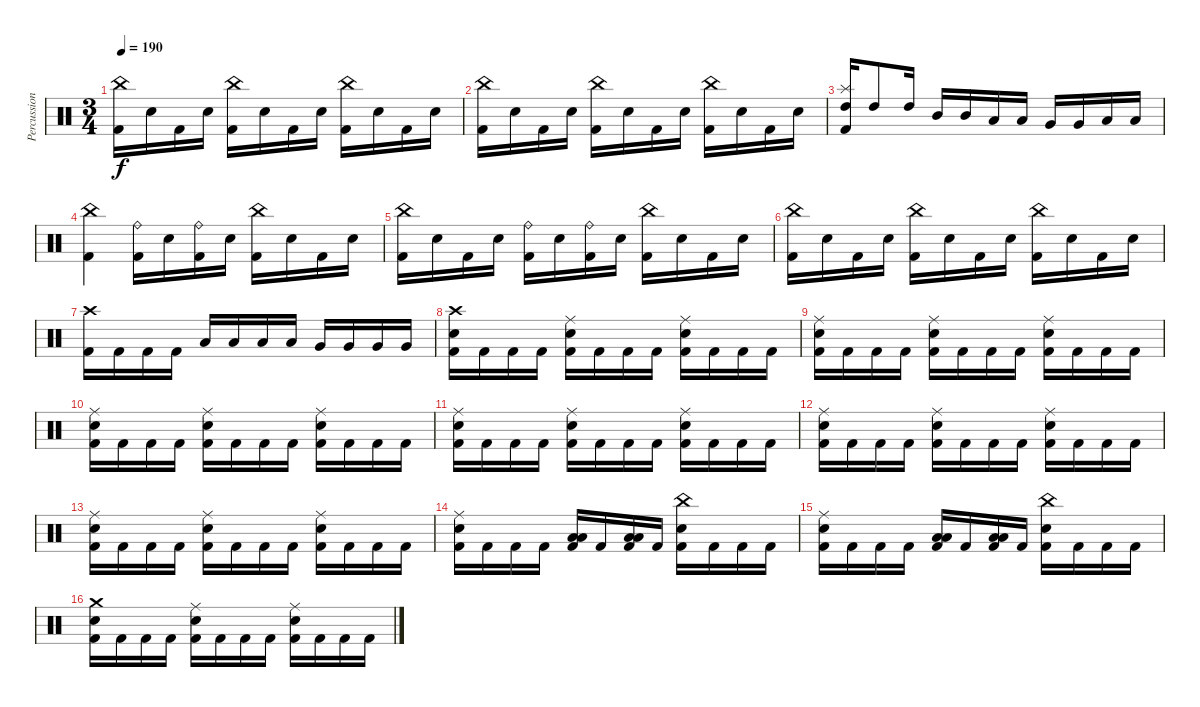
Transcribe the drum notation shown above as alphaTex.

\track ("Percussion" "Percussion") {instrument percussion}
\staff {score}
\articulation defaults
\ts (3 4)
\tempo 190
\clef neutral
\ks c
("China (hit)" "Kick (hit) 2").16{dy f} "Electric Snare (hit)".16 "Kick (hit) 2".16 "Electric Snare (hit)".16 ("China (hit)" "Kick (hit) 2").16 "Electric Snare (hit)".16 "Kick (hit) 2".16 "Electric Snare (hit)".16 ("China (hit)" "Kick (hit) 2").16 "Electric Snare (hit)".16 "Kick (hit) 2".16 "Electric Snare (hit)".16 |
("China (hit)" "Kick (hit) 2").16 "Electric Snare (hit)".16 "Kick (hit) 2".16 "Electric Snare (hit)".16 ("China (hit)" "Kick (hit) 2").16 "Electric Snare (hit)".16 "Kick (hit) 2".16 "Electric Snare (hit)".16 ("China (hit)" "Kick (hit) 2").16 "Electric Snare (hit)".16 "Kick (hit) 2".16 "Electric Snare (hit)".16 |
("Splash (hit)" "High Tom (hit)" "Kick (hit) 2").16 "High Tom (hit)".8 "High Tom (hit)".16 "Mid Tom (hit)".16 "Mid Tom (hit)".16 "Low Tom (hit)".16 "Low Tom (hit)".16 "Very Low Tom (hit)".16 "Very Low Tom (hit)".16 "Low Floor Tom (hit)".16 "Low Floor Tom (hit)".16 |
("China (hit)" "Kick (hit) 2").4 ("Ride (bell)" "Kick (hit) 2").16 "Electric Snare (hit)".16 ("Ride (bell)" "Kick (hit) 2").16 "Electric Snare (hit)".16 ("China (hit)" "Kick (hit) 2").16 "Electric Snare (hit)".16 "Kick (hit) 2".16 "Electric Snare (hit)".16 |
("China (hit)" "Kick (hit) 2").16 "Electric Snare (hit)".16 "Kick (hit) 2".16 "Electric Snare (hit)".16 ("Ride (bell)" "Kick (hit) 2").16 "Electric Snare (hit)".16 ("Ride (bell)" "Kick (hit) 2").16 "Electric Snare (hit)".16 ("China (hit)" "Kick (hit) 2").16 "Electric Snare (hit)".16 "Kick (hit) 2".16 "Electric Snare (hit)".16 |
("China (hit)" "Kick (hit) 2").16 "Electric Snare (hit)".16 "Kick (hit) 2".16 "Electric Snare (hit)".16 ("China (hit)" "Kick (hit) 2").16 "Electric Snare (hit)".16 "Kick (hit) 2".16 "Electric Snare (hit)".16 ("China (hit)" "Kick (hit) 2").16 "Electric Snare (hit)".16 "Kick (hit) 2".16 "Electric Snare (hit)".16 |
("Crash high (hit)" "Kick (hit) 2").16 "Kick (hit) 2".16 "Kick (hit) 2".16 "Kick (hit) 2".16 "Low Tom (hit)".16 "Low Tom (hit)".16 "Low Tom (hit)".16 "Low Tom (hit)".16 "Very Low Tom (hit)".16 "Very Low Tom (hit)".16 "Very Low Tom (hit)".16 "Very Low Tom (hit)".16 |
("Crash high (hit)" "Electric Snare (hit)" "Kick (hit) 2").16 "Kick (hit) 2".16 "Kick (hit) 2".16 "Kick (hit) 2".16 ("Ride (middle)" "Electric Snare (hit)" "Kick (hit) 2").16 "Kick (hit) 2".16 "Kick (hit) 2".16 "Kick (hit) 2".16 ("Ride (middle)" "Electric Snare (hit)" "Kick (hit) 2").16 "Kick (hit) 2".16 "Kick (hit) 2".16 "Kick (hit) 2".16 |
("Ride (middle)" "Electric Snare (hit)" "Kick (hit) 2").16 "Kick (hit) 2".16 "Kick (hit) 2".16 "Kick (hit) 2".16 ("Ride (middle)" "Electric Snare (hit)" "Kick (hit) 2").16 "Kick (hit) 2".16 "Kick (hit) 2".16 "Kick (hit) 2".16 ("Ride (middle)" "Electric Snare (hit)" "Kick (hit) 2").16 "Kick (hit) 2".16 "Kick (hit) 2".16 "Kick (hit) 2".16 |
("Ride (middle)" "Electric Snare (hit)" "Kick (hit) 2").16 "Kick (hit) 2".16 "Kick (hit) 2".16 "Kick (hit) 2".16 ("Ride (middle)" "Electric Snare (hit)" "Kick (hit) 2").16 "Kick (hit) 2".16 "Kick (hit) 2".16 "Kick (hit) 2".16 ("Ride (middle)" "Electric Snare (hit)" "Kick (hit) 2").16 "Kick (hit) 2".16 "Kick (hit) 2".16 "Kick (hit) 2".16 |
("Ride (middle)" "Electric Snare (hit)" "Kick (hit) 2").16 "Kick (hit) 2".16 "Kick (hit) 2".16 "Kick (hit) 2".16 ("Ride (middle)" "Electric Snare (hit)" "Kick (hit) 2").16 "Kick (hit) 2".16 "Kick (hit) 2".16 "Kick (hit) 2".16 ("Ride (middle)" "Electric Snare (hit)" "Kick (hit) 2").16 "Kick (hit) 2".16 "Kick (hit) 2".16 "Kick (hit) 2".16 |
("Ride (middle)" "Electric Snare (hit)" "Kick (hit) 2").16 "Kick (hit) 2".16 "Kick (hit) 2".16 "Kick (hit) 2".16 ("Ride (middle)" "Electric Snare (hit)" "Kick (hit) 2").16 "Kick (hit) 2".16 "Kick (hit) 2".16 "Kick (hit) 2".16 ("Ride (middle)" "Electric Snare (hit)" "Kick (hit) 2").16 "Kick (hit) 2".16 "Kick (hit) 2".16 "Kick (hit) 2".16 |
("Ride (middle)" "Electric Snare (hit)" "Kick (hit) 2").16 "Kick (hit) 2".16 "Kick (hit) 2".16 "Kick (hit) 2".16 ("Ride (middle)" "Electric Snare (hit)" "Kick (hit) 2").16 "Kick (hit) 2".16 "Kick (hit) 2".16 "Kick (hit) 2".16 ("Ride (middle)" "Electric Snare (hit)" "Kick (hit) 2").16 "Kick (hit) 2".16 "Kick (hit) 2".16 "Kick (hit) 2".16 |
("Ride (middle)" "Electric Snare (hit)" "Kick (hit) 2").16 "Kick (hit) 2".16 "Kick (hit) 2".16 "Kick (hit) 2".16 ("Low Tom (hit)" "Low Floor Tom (hit)" "Kick (hit) 2").16 "Kick (hit) 2".16 ("Low Tom (hit)" "Low Floor Tom (hit)" "Kick (hit) 2").16 "Kick (hit) 2".16 ("China (hit)" "Electric Snare (hit)" "Kick (hit) 2").16 "Kick (hit) 2".16 "Kick (hit) 2".16 "Kick (hit) 2".16 |
("Ride (middle)" "Electric Snare (hit)" "Kick (hit) 2").16 "Kick (hit) 2".16 "Kick (hit) 2".16 "Kick (hit) 2".16 ("Low Tom (hit)" "Low Floor Tom (hit)" "Kick (hit) 2").16 "Kick (hit) 2".16 ("Low Tom (hit)" "Low Floor Tom (hit)" "Kick (hit) 2").16 "Kick (hit) 2".16 ("China (hit)" "Electric Snare (hit)" "Kick (hit) 2").16 "Kick (hit) 2".16 "Kick (hit) 2".16 "Kick (hit) 2".16 |
("Crash medium (hit)" "Electric Snare (hit)" "Kick (hit) 2").16 "Kick (hit) 2".16 "Kick (hit) 2".16 "Kick (hit) 2".16 ("Ride (middle)" "Electric Snare (hit)" "Kick (hit) 2").16 "Kick (hit) 2".16 "Kick (hit) 2".16 "Kick (hit) 2".16 ("Ride (middle)" "Electric Snare (hit)" "Kick (hit) 2").16 "Kick (hit) 2".16 "Kick (hit) 2".16 "Kick (hit) 2".16
